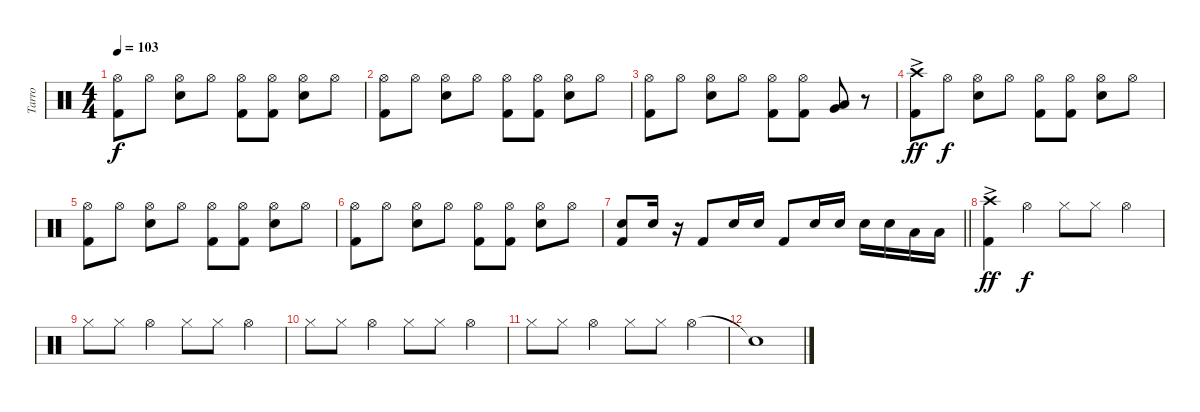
\track ("Tarro" "Tarro") {instrument percussion}
\staff {score}
\articulation defaults
\ts (4 4)
\tempo 103
\clef neutral
\ks c
("Hi-Hat (open)" "Kick (hit) 2").8{dy f} "Hi-Hat (open)".8 ("Hi-Hat (open)" "Electric Snare (hit)").8 "Hi-Hat (open)".8 ("Hi-Hat (open)" "Kick (hit) 2").8 ("Hi-Hat (open)" "Kick (hit) 2").8 ("Hi-Hat (open)" "Electric Snare (hit)").8 "Hi-Hat (open)".8 |
("Hi-Hat (open)" "Kick (hit) 2").8 "Hi-Hat (open)".8 ("Hi-Hat (open)" "Electric Snare (hit)").8 "Hi-Hat (open)".8 ("Hi-Hat (open)" "Kick (hit) 2").8 ("Hi-Hat (open)" "Kick (hit) 2").8 ("Hi-Hat (open)" "Electric Snare (hit)").8 "Hi-Hat (open)".8 |
("Hi-Hat (open)" "Kick (hit) 2").8 "Hi-Hat (open)".8 ("Hi-Hat (open)" "Electric Snare (hit)").8 "Hi-Hat (open)".8 ("Hi-Hat (open)" "Kick (hit) 2").8 ("Hi-Hat (open)" "Kick (hit) 2").8 ("Very Low Tom (hit)" "Low Floor Tom (hit)").8 r.8 |
("Crash high (hit)"{ac} "Kick (hit) 2").8{dy ff} "Hi-Hat (open)".8{dy f} ("Hi-Hat (open)" "Electric Snare (hit)").8 "Hi-Hat (open)".8 ("Hi-Hat (open)" "Kick (hit) 2").8 ("Hi-Hat (open)" "Kick (hit) 2").8 ("Hi-Hat (open)" "Electric Snare (hit)").8 "Hi-Hat (open)".8 |
("Hi-Hat (open)" "Kick (hit) 2").8 "Hi-Hat (open)".8 ("Hi-Hat (open)" "Electric Snare (hit)").8 "Hi-Hat (open)".8 ("Hi-Hat (open)" "Kick (hit) 2").8 ("Hi-Hat (open)" "Kick (hit) 2").8 ("Hi-Hat (open)" "Electric Snare (hit)").8 "Hi-Hat (open)".8 |
("Hi-Hat (open)" "Kick (hit) 2").8 "Hi-Hat (open)".8 ("Hi-Hat (open)" "Electric Snare (hit)").8 "Hi-Hat (open)".8 ("Hi-Hat (open)" "Kick (hit) 2").8 ("Hi-Hat (open)" "Kick (hit) 2").8 ("Hi-Hat (open)" "Electric Snare (hit)").8 "Hi-Hat (open)".8 |
\barLineRight lightlight
("Electric Snare (hit)" "Kick (hit) 2").8 "Electric Snare (hit)".16 r.16 "Kick (hit) 2".8 "Electric Snare (hit)".16 "Electric Snare (hit)".16 "Kick (hit) 2".8 "Electric Snare (hit)".16 "Electric Snare (hit)".16 "Electric Snare (hit)".16 "Electric Snare (hit)".16 "Low Floor Tom (hit)".16 "Low Floor Tom (hit)".16 |
("Crash high (hit)"{ac} "Kick (hit) 2").4{dy ff} "Hi-Hat (open)".4{dy f} "Hi-Hat (closed)".8 "Hi-Hat (closed)".8 "Hi-Hat (open)".4 |
"Hi-Hat (closed)".8 "Hi-Hat (closed)".8 "Hi-Hat (open)".4 "Hi-Hat (closed)".8 "Hi-Hat (closed)".8 "Hi-Hat (open)".4 |
"Hi-Hat (closed)".8 "Hi-Hat (closed)".8 "Hi-Hat (open)".4 "Hi-Hat (closed)".8 "Hi-Hat (closed)".8 "Hi-Hat (open)".4 |
"Hi-Hat (closed)".8 "Hi-Hat (closed)".8 "Hi-Hat (open)".4 "Hi-Hat (closed)".8 "Hi-Hat (closed)".8 "Hi-Hat (open)".4 |
"Snare (hit)"{t}.1
